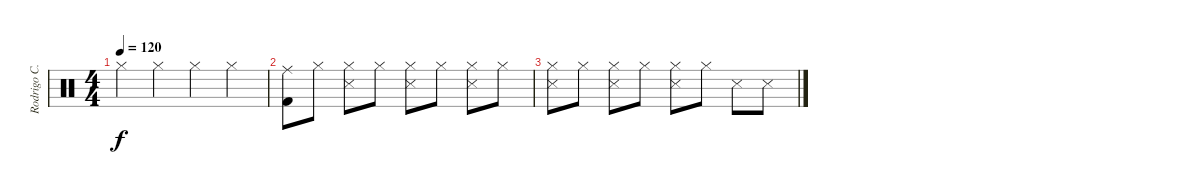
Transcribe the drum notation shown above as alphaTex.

\track ("Rodrigo C. (Bateria)" "Rodrigo C.") {instrument percussion}
\staff {score}
\articulation defaults
\ts (4 4)
\tempo 120
\clef neutral
\ks c "Hi-Hat (closed)".4{dy f} "Hi-Hat (closed)".4 "Hi-Hat (closed)".4 "Hi-Hat (closed)".4
|
("Ride (middle)" "Kick (hit) 2").8 "Hi-Hat (closed)".8 ("Hi-Hat (closed)" "Snare (side stick) 3").8 "Hi-Hat (closed)".8 ("Hi-Hat (closed)" "Snare (side stick) 3").8 "Hi-Hat (closed)".8 ("Hi-Hat (closed)" "Snare (side stick) 3").8 "Hi-Hat (closed)".8 |
("Hi-Hat (closed)" "Snare (side stick) 3").8 "Hi-Hat (closed)".8 ("Hi-Hat (closed)" "Snare (side stick) 3").8 "Hi-Hat (closed)".8 ("Hi-Hat (closed)" "Snare (side stick) 3").8 "Hi-Hat (closed)".8 "Snare (side stick) 3".8 "Snare (side stick) 3".8
